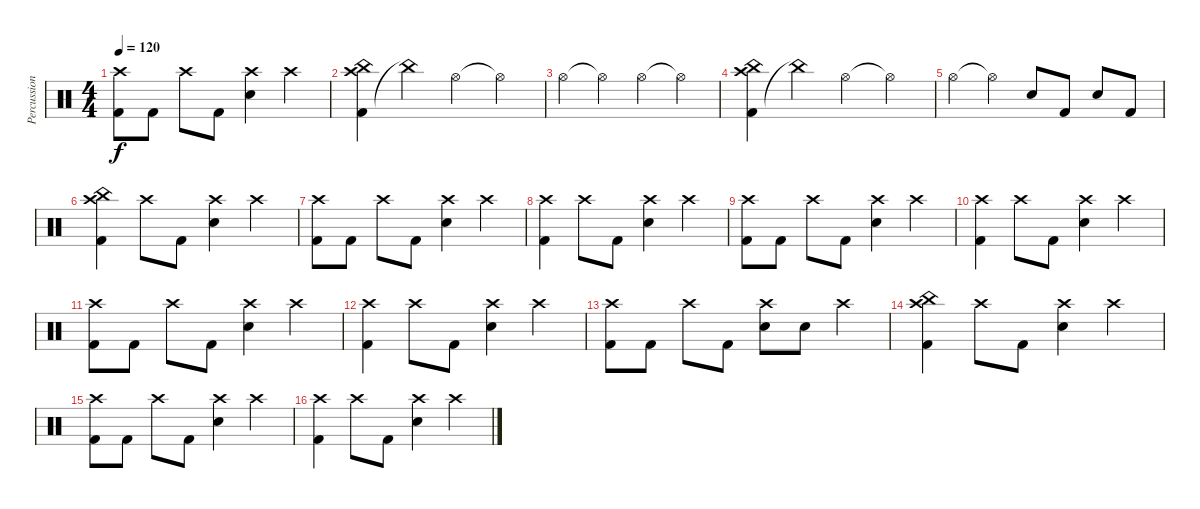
\track ("Percussion" "Percussion") {instrument percussion}
\staff {score}
\articulation defaults
\ts (4 4)
\tempo 120
\clef neutral
\ks c
("Kick (hit) 2" "Crash high (hit)").8{dy f} "Kick (hit) 2".8 "Crash high (hit)".8 "Kick (hit) 2".8 ("Electric Snare (hit)" "Crash high (hit)").4 "Crash high (hit)".4 |
("Kick (hit) 2" "Crash high (hit)" "China (hit)").4 "China (hit)"{t}.4 "Hi-Hat (open)".4 "Hi-Hat (open)"{t}.4 |
"Hi-Hat (open)".4 "Hi-Hat (open)"{t}.4 "Hi-Hat (open)".4 "Hi-Hat (open)"{t}.4 |
("Kick (hit) 2" "Crash high (hit)" "China (hit)").4 "China (hit)"{t}.4 "Hi-Hat (open)".4 "Hi-Hat (open)"{t}.4 |
"Hi-Hat (open)".4 "Hi-Hat (open)"{t}.4 "Electric Snare (hit)".8 "Kick (hit) 2".8 "Electric Snare (hit)".8 "Kick (hit) 2".8 |
("Kick (hit) 2" "Crash high (hit)" "China (hit)").4 "Crash high (hit)".8 "Kick (hit) 2".8 ("Electric Snare (hit)" "Crash high (hit)").4 "Crash high (hit)".4 |
("Kick (hit) 2" "Crash high (hit)").8 "Kick (hit) 2".8 "Crash high (hit)".8 "Kick (hit) 2".8 ("Electric Snare (hit)" "Crash high (hit)").4 "Crash high (hit)".4 |
("Kick (hit) 2" "Crash high (hit)").4 "Crash high (hit)".8 "Kick (hit) 2".8 ("Electric Snare (hit)" "Crash high (hit)").4 "Crash high (hit)".4 |
("Kick (hit) 2" "Crash high (hit)").8 "Kick (hit) 2".8 "Crash high (hit)".8 "Kick (hit) 2".8 ("Electric Snare (hit)" "Crash high (hit)").4 "Crash high (hit)".4 |
("Kick (hit) 2" "Crash high (hit)").4 "Crash high (hit)".8 "Kick (hit) 2".8 ("Electric Snare (hit)" "Crash high (hit)").4 "Crash high (hit)".4 |
("Kick (hit) 2" "Crash high (hit)").8 "Kick (hit) 2".8 "Crash high (hit)".8 "Kick (hit) 2".8 ("Electric Snare (hit)" "Crash high (hit)").4 "Crash high (hit)".4 |
("Kick (hit) 2" "Crash high (hit)").4 "Crash high (hit)".8 "Kick (hit) 2".8 ("Electric Snare (hit)" "Crash high (hit)").4 "Crash high (hit)".4 |
("Kick (hit) 2" "Crash high (hit)").8 "Kick (hit) 2".8 "Crash high (hit)".8 "Kick (hit) 2".8 ("Electric Snare (hit)" "Crash high (hit)").8 "Electric Snare (hit)".8 "Crash high (hit)".4 |
("Kick (hit) 2" "Crash high (hit)" "China (hit)").4 "Crash high (hit)".8 "Kick (hit) 2".8 ("Electric Snare (hit)" "Crash high (hit)").4 "Crash high (hit)".4 |
("Kick (hit) 2" "Crash high (hit)").8 "Kick (hit) 2".8 "Crash high (hit)".8 "Kick (hit) 2".8 ("Electric Snare (hit)" "Crash high (hit)").4 "Crash high (hit)".4 |
("Kick (hit) 2" "Crash high (hit)").4 "Crash high (hit)".8 "Kick (hit) 2".8 ("Electric Snare (hit)" "Crash high (hit)").4 "Crash high (hit)".4
